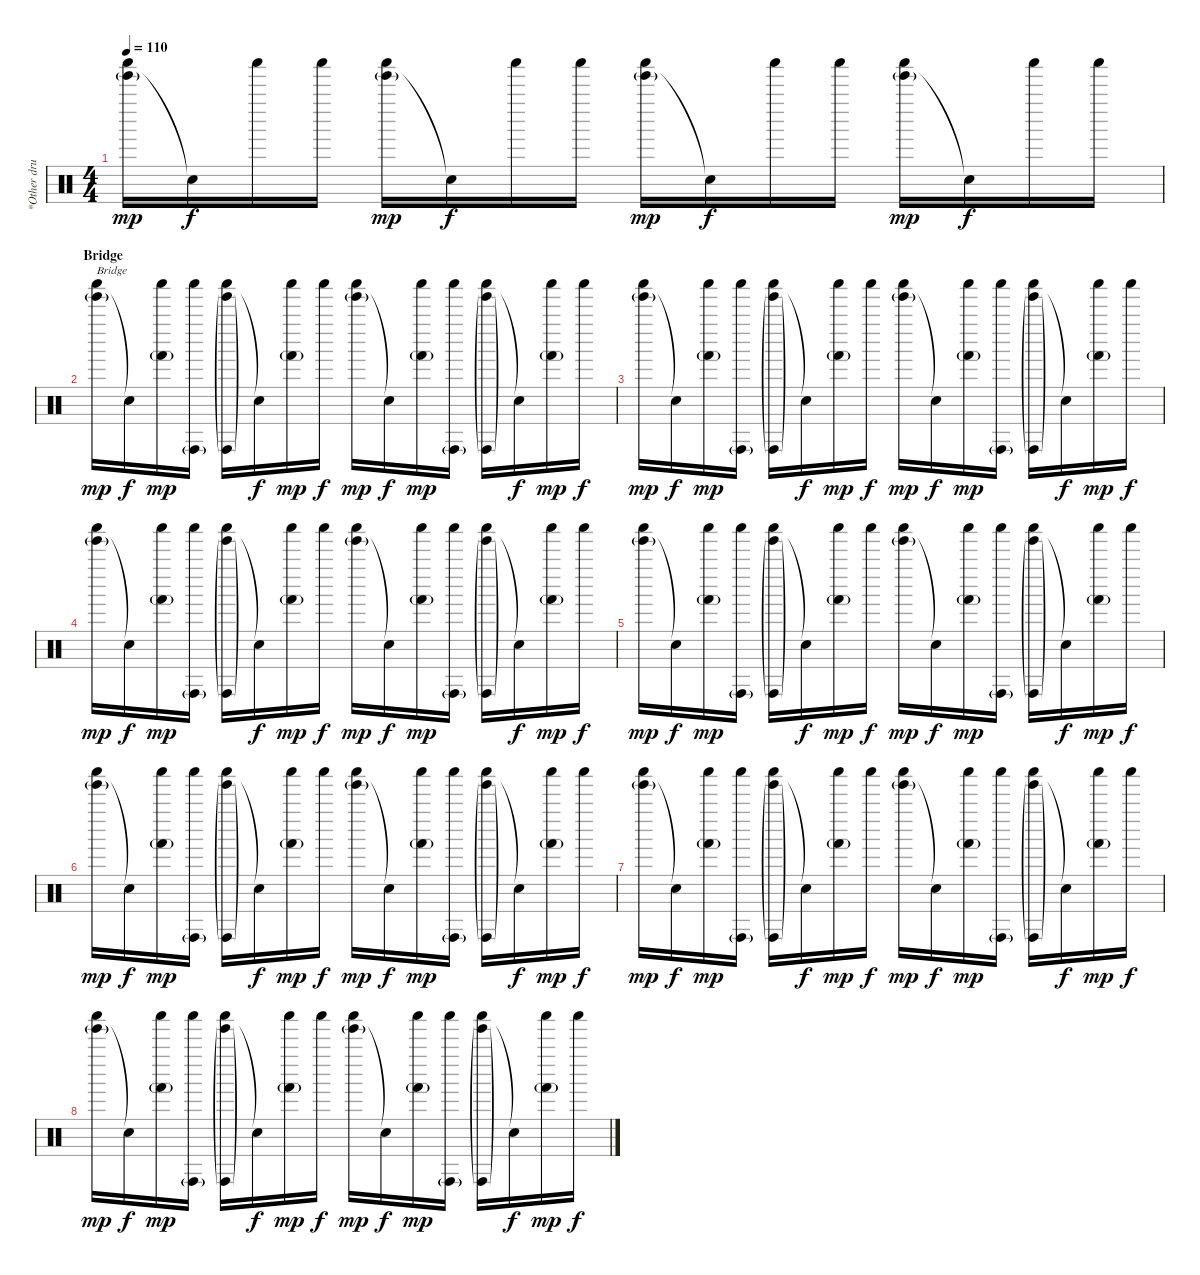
\track ("*Other drums" "*Other dru") {instrument percussion}
\staff {score}
\articulation defaults
\ts (4 4)
\tempo 110
\clef neutral
\ks c
("Tinkle Bell (hit)"{g} "Shaker (hit)").16{dy mp} "Snare (hit)"{t}.16{dy f} "Shaker (hit)".16 "Shaker (hit)".16 ("Tinkle Bell (hit)"{g} "Shaker (hit)").16{dy mp} "Snare (hit)"{t}.16{dy f} "Shaker (hit)".16 "Shaker (hit)".16 ("Tinkle Bell (hit)"{g} "Shaker (hit)").16{dy mp} "Snare (hit)"{t}.16{dy f} "Shaker (hit)".16 "Shaker (hit)".16 ("Tinkle Bell (hit)"{g} "Shaker (hit)").16{dy mp} "Snare (hit)"{t}.16{dy f} "Shaker (hit)".16 "Shaker (hit)".16 |
\section ("" "Bridge")
("Tinkle Bell (hit)"{g} "Shaker (hit)").16{txt "Bridge" dy mp} "Snare (hit)"{t}.16{dy f} ("Shaker (hit)" "Hand (hit)"{g}).16{dy mp} ("Shaker (hit)" "Conga high (hit)"{g}).16 ("Tinkle Bell (hit)"{g} "Shaker (hit)" "Conga high (hit)"{g}).16 "Snare (hit)"{t}.16{dy f} ("Shaker (hit)" "Hand (hit)"{g}).16{dy mp} "Shaker (hit)".16{dy f} ("Tinkle Bell (hit)"{g} "Shaker (hit)").16{dy mp} "Snare (hit)"{t}.16{dy f} ("Shaker (hit)" "Hand (hit)"{g}).16{dy mp} ("Shaker (hit)" "Conga high (hit)"{g}).16 ("Tinkle Bell (hit)"{g} "Shaker (hit)" "Conga high (hit)"{g}).16 "Snare (hit)"{t}.16{dy f} ("Shaker (hit)" "Hand (hit)"{g}).16{dy mp} "Shaker (hit)".16{dy f} |
("Tinkle Bell (hit)"{g} "Shaker (hit)").16{dy mp} "Snare (hit)"{t}.16{dy f} ("Shaker (hit)" "Hand (hit)"{g}).16{dy mp} ("Shaker (hit)" "Conga high (hit)"{g}).16 ("Tinkle Bell (hit)"{g} "Shaker (hit)" "Conga high (hit)"{g}).16 "Snare (hit)"{t}.16{dy f} ("Shaker (hit)" "Hand (hit)"{g}).16{dy mp} "Shaker (hit)".16{dy f} ("Tinkle Bell (hit)"{g} "Shaker (hit)").16{dy mp} "Snare (hit)"{t}.16{dy f} ("Shaker (hit)" "Hand (hit)"{g}).16{dy mp} ("Shaker (hit)" "Conga high (hit)"{g}).16 ("Tinkle Bell (hit)"{g} "Shaker (hit)" "Conga high (hit)"{g}).16 "Snare (hit)"{t}.16{dy f} ("Shaker (hit)" "Hand (hit)"{g}).16{dy mp} "Shaker (hit)".16{dy f} |
("Tinkle Bell (hit)"{g} "Shaker (hit)").16{dy mp} "Snare (hit)"{t}.16{dy f} ("Shaker (hit)" "Hand (hit)"{g}).16{dy mp} ("Shaker (hit)" "Conga high (hit)"{g}).16 ("Tinkle Bell (hit)"{g} "Shaker (hit)" "Conga high (hit)"{g}).16 "Snare (hit)"{t}.16{dy f} ("Shaker (hit)" "Hand (hit)"{g}).16{dy mp} "Shaker (hit)".16{dy f} ("Tinkle Bell (hit)"{g} "Shaker (hit)").16{dy mp} "Snare (hit)"{t}.16{dy f} ("Shaker (hit)" "Hand (hit)"{g}).16{dy mp} ("Shaker (hit)" "Conga high (hit)"{g}).16 ("Tinkle Bell (hit)"{g} "Shaker (hit)" "Conga high (hit)"{g}).16 "Snare (hit)"{t}.16{dy f} ("Shaker (hit)" "Hand (hit)"{g}).16{dy mp} "Shaker (hit)".16{dy f} |
("Tinkle Bell (hit)"{g} "Shaker (hit)").16{dy mp} "Snare (hit)"{t}.16{dy f} ("Shaker (hit)" "Hand (hit)"{g}).16{dy mp} ("Shaker (hit)" "Conga high (hit)"{g}).16 ("Tinkle Bell (hit)"{g} "Shaker (hit)" "Conga high (hit)"{g}).16 "Snare (hit)"{t}.16{dy f} ("Shaker (hit)" "Hand (hit)"{g}).16{dy mp} "Shaker (hit)".16{dy f} ("Tinkle Bell (hit)"{g} "Shaker (hit)").16{dy mp} "Snare (hit)"{t}.16{dy f} ("Shaker (hit)" "Hand (hit)"{g}).16{dy mp} ("Shaker (hit)" "Conga high (hit)"{g}).16 ("Tinkle Bell (hit)"{g} "Shaker (hit)" "Conga high (hit)"{g}).16 "Snare (hit)"{t}.16{dy f} ("Shaker (hit)" "Hand (hit)"{g}).16{dy mp} "Shaker (hit)".16{dy f} |
("Tinkle Bell (hit)"{g} "Shaker (hit)").16{dy mp} "Snare (hit)"{t}.16{dy f} ("Shaker (hit)" "Hand (hit)"{g}).16{dy mp} ("Shaker (hit)" "Conga high (hit)"{g}).16 ("Tinkle Bell (hit)"{g} "Shaker (hit)" "Conga high (hit)"{g}).16 "Snare (hit)"{t}.16{dy f} ("Shaker (hit)" "Hand (hit)"{g}).16{dy mp} "Shaker (hit)".16{dy f} ("Tinkle Bell (hit)"{g} "Shaker (hit)").16{dy mp} "Snare (hit)"{t}.16{dy f} ("Shaker (hit)" "Hand (hit)"{g}).16{dy mp} ("Shaker (hit)" "Conga high (hit)"{g}).16 ("Tinkle Bell (hit)"{g} "Shaker (hit)" "Conga high (hit)"{g}).16 "Snare (hit)"{t}.16{dy f} ("Shaker (hit)" "Hand (hit)"{g}).16{dy mp} "Shaker (hit)".16{dy f} |
("Tinkle Bell (hit)"{g} "Shaker (hit)").16{dy mp} "Snare (hit)"{t}.16{dy f} ("Shaker (hit)" "Hand (hit)"{g}).16{dy mp} ("Shaker (hit)" "Conga high (hit)"{g}).16 ("Tinkle Bell (hit)"{g} "Shaker (hit)" "Conga high (hit)"{g}).16 "Snare (hit)"{t}.16{dy f} ("Shaker (hit)" "Hand (hit)"{g}).16{dy mp} "Shaker (hit)".16{dy f} ("Tinkle Bell (hit)"{g} "Shaker (hit)").16{dy mp} "Snare (hit)"{t}.16{dy f} ("Shaker (hit)" "Hand (hit)"{g}).16{dy mp} ("Shaker (hit)" "Conga high (hit)"{g}).16 ("Tinkle Bell (hit)"{g} "Shaker (hit)" "Conga high (hit)"{g}).16 "Snare (hit)"{t}.16{dy f} ("Shaker (hit)" "Hand (hit)"{g}).16{dy mp} "Shaker (hit)".16{dy f} |
("Tinkle Bell (hit)"{g} "Shaker (hit)").16{dy mp} "Snare (hit)"{t}.16{dy f} ("Shaker (hit)" "Hand (hit)"{g}).16{dy mp} ("Shaker (hit)" "Conga high (hit)"{g}).16 ("Tinkle Bell (hit)"{g} "Shaker (hit)" "Conga high (hit)"{g}).16 "Snare (hit)"{t}.16{dy f} ("Shaker (hit)" "Hand (hit)"{g}).16{dy mp} "Shaker (hit)".16{dy f} ("Tinkle Bell (hit)"{g} "Shaker (hit)").16{dy mp} "Snare (hit)"{t}.16{dy f} ("Shaker (hit)" "Hand (hit)"{g}).16{dy mp} ("Shaker (hit)" "Conga high (hit)"{g}).16 ("Tinkle Bell (hit)"{g} "Shaker (hit)" "Conga high (hit)"{g}).16 "Snare (hit)"{t}.16{dy f} ("Shaker (hit)" "Hand (hit)"{g}).16{dy mp} "Shaker (hit)".16{dy f}
